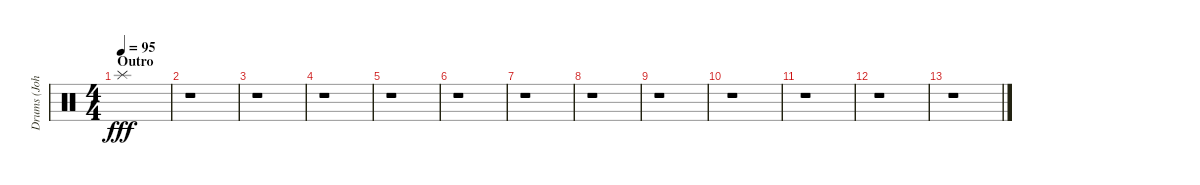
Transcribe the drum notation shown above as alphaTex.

\track ("Drums (John Otto)" "Drums (Joh") {instrument percussion}
\staff {score}
\articulation defaults
\ts (4 4)
\section ("" "Outro")
\tempo 95
\clef neutral
\ks c "Splash (hit)".1{dy fff}
|
r.1 |
r.1 |
r.1 |
r.1 |
r.1 |
r.1 |
r.1 |
r.1 |
r.1 |
r.1 |
r.1 |
r.1
